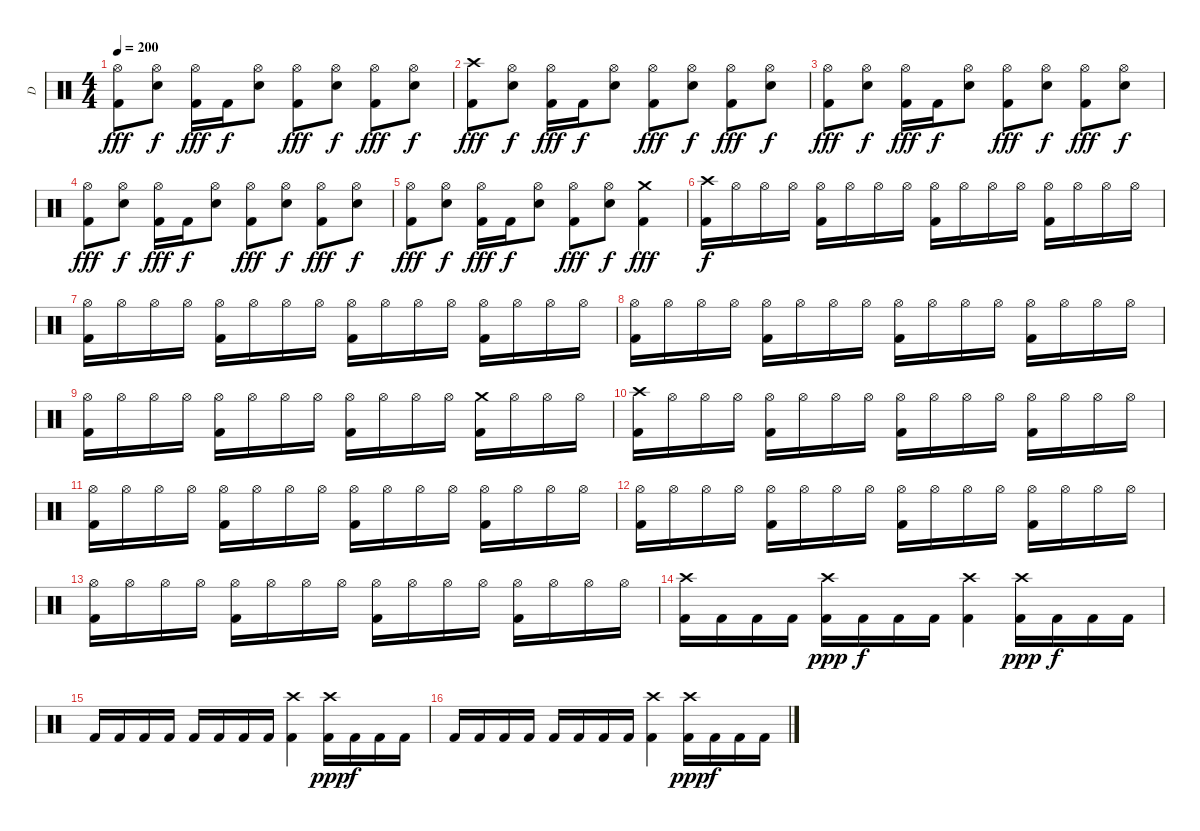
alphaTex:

\track ("D" "D") {instrument percussion}
\staff {score}
\articulation defaults
\ts (4 4)
\tempo 200
\clef neutral
\ks c
("Hi-Hat (open)" "Kick (hit) 2").8{dy fff} ("Hi-Hat (open)" "Electric Snare (hit)").8{dy f} ("Hi-Hat (open)" "Kick (hit) 2").16{dy fff} "Kick (hit) 2".16{dy f} ("Hi-Hat (open)" "Electric Snare (hit)").8 ("Hi-Hat (open)" "Kick (hit) 2").8{dy fff} ("Hi-Hat (open)" "Electric Snare (hit)").8{dy f} ("Hi-Hat (open)" "Kick (hit) 2").8{dy fff} ("Hi-Hat (open)" "Electric Snare (hit)").8{dy f} |
("Crash high (hit)" "Kick (hit) 2").8{dy fff} ("Hi-Hat (open)" "Electric Snare (hit)").8{dy f} ("Hi-Hat (open)" "Kick (hit) 2").16{dy fff} "Kick (hit) 2".16{dy f} ("Hi-Hat (open)" "Electric Snare (hit)").8 ("Hi-Hat (open)" "Kick (hit) 2").8{dy fff} ("Hi-Hat (open)" "Electric Snare (hit)").8{dy f} ("Hi-Hat (open)" "Kick (hit) 2").8{dy fff} ("Hi-Hat (open)" "Electric Snare (hit)").8{dy f} |
("Hi-Hat (open)" "Kick (hit) 2").8{dy fff} ("Hi-Hat (open)" "Electric Snare (hit)").8{dy f} ("Hi-Hat (open)" "Kick (hit) 2").16{dy fff} "Kick (hit) 2".16{dy f} ("Hi-Hat (open)" "Electric Snare (hit)").8 ("Hi-Hat (open)" "Kick (hit) 2").8{dy fff} ("Hi-Hat (open)" "Electric Snare (hit)").8{dy f} ("Hi-Hat (open)" "Kick (hit) 2").8{dy fff} ("Hi-Hat (open)" "Electric Snare (hit)").8{dy f} |
("Hi-Hat (open)" "Kick (hit) 2").8{dy fff} ("Hi-Hat (open)" "Electric Snare (hit)").8{dy f} ("Hi-Hat (open)" "Kick (hit) 2").16{dy fff} "Kick (hit) 2".16{dy f} ("Hi-Hat (open)" "Electric Snare (hit)").8 ("Hi-Hat (open)" "Kick (hit) 2").8{dy fff} ("Hi-Hat (open)" "Electric Snare (hit)").8{dy f} ("Hi-Hat (open)" "Kick (hit) 2").8{dy fff} ("Hi-Hat (open)" "Electric Snare (hit)").8{dy f} |
("Hi-Hat (open)" "Kick (hit) 2").8{dy fff} ("Hi-Hat (open)" "Electric Snare (hit)").8{dy f} ("Hi-Hat (open)" "Kick (hit) 2").16{dy fff} "Kick (hit) 2".16{dy f} ("Hi-Hat (open)" "Electric Snare (hit)").8 ("Hi-Hat (open)" "Kick (hit) 2").8{dy fff} ("Hi-Hat (open)" "Electric Snare (hit)").8{dy f} ("Crash medium (hit)" "Kick (hit) 2").4{dy fff} |
("Crash high (hit)" "Kick (hit) 2").16{dy f} "Hi-Hat (open)".16 "Hi-Hat (open)".16 "Hi-Hat (open)".16 ("Hi-Hat (open)" "Kick (hit) 2").16 "Hi-Hat (open)".16 "Hi-Hat (open)".16 "Hi-Hat (open)".16 ("Hi-Hat (open)" "Kick (hit) 2").16 "Hi-Hat (open)".16 "Hi-Hat (open)".16 "Hi-Hat (open)".16 ("Hi-Hat (open)" "Kick (hit) 2").16 "Hi-Hat (open)".16 "Hi-Hat (open)".16 "Hi-Hat (open)".16 |
("Hi-Hat (open)" "Kick (hit) 2").16 "Hi-Hat (open)".16 "Hi-Hat (open)".16 "Hi-Hat (open)".16 ("Hi-Hat (open)" "Kick (hit) 2").16 "Hi-Hat (open)".16 "Hi-Hat (open)".16 "Hi-Hat (open)".16 ("Hi-Hat (open)" "Kick (hit) 2").16 "Hi-Hat (open)".16 "Hi-Hat (open)".16 "Hi-Hat (open)".16 ("Hi-Hat (open)" "Kick (hit) 2").16 "Hi-Hat (open)".16 "Hi-Hat (open)".16 "Hi-Hat (open)".16 |
("Hi-Hat (open)" "Kick (hit) 2").16 "Hi-Hat (open)".16 "Hi-Hat (open)".16 "Hi-Hat (open)".16 ("Hi-Hat (open)" "Kick (hit) 2").16 "Hi-Hat (open)".16 "Hi-Hat (open)".16 "Hi-Hat (open)".16 ("Hi-Hat (open)" "Kick (hit) 2").16 "Hi-Hat (open)".16 "Hi-Hat (open)".16 "Hi-Hat (open)".16 ("Hi-Hat (open)" "Kick (hit) 2").16 "Hi-Hat (open)".16 "Hi-Hat (open)".16 "Hi-Hat (open)".16 |
("Hi-Hat (open)" "Kick (hit) 2").16 "Hi-Hat (open)".16 "Hi-Hat (open)".16 "Hi-Hat (open)".16 ("Hi-Hat (open)" "Kick (hit) 2").16 "Hi-Hat (open)".16 "Hi-Hat (open)".16 "Hi-Hat (open)".16 ("Hi-Hat (open)" "Kick (hit) 2").16 "Hi-Hat (open)".16 "Hi-Hat (open)".16 "Hi-Hat (open)".16 ("Crash medium (hit)" "Kick (hit) 2").16 "Hi-Hat (open)".16 "Hi-Hat (open)".16 "Hi-Hat (open)".16 |
("Crash high (hit)" "Kick (hit) 2").16 "Hi-Hat (open)".16 "Hi-Hat (open)".16 "Hi-Hat (open)".16 ("Hi-Hat (open)" "Kick (hit) 2").16 "Hi-Hat (open)".16 "Hi-Hat (open)".16 "Hi-Hat (open)".16 ("Hi-Hat (open)" "Kick (hit) 2").16 "Hi-Hat (open)".16 "Hi-Hat (open)".16 "Hi-Hat (open)".16 ("Hi-Hat (open)" "Kick (hit) 2").16 "Hi-Hat (open)".16 "Hi-Hat (open)".16 "Hi-Hat (open)".16 |
("Hi-Hat (open)" "Kick (hit) 2").16 "Hi-Hat (open)".16 "Hi-Hat (open)".16 "Hi-Hat (open)".16 ("Hi-Hat (open)" "Kick (hit) 2").16 "Hi-Hat (open)".16 "Hi-Hat (open)".16 "Hi-Hat (open)".16 ("Hi-Hat (open)" "Kick (hit) 2").16 "Hi-Hat (open)".16 "Hi-Hat (open)".16 "Hi-Hat (open)".16 ("Hi-Hat (open)" "Kick (hit) 2").16 "Hi-Hat (open)".16 "Hi-Hat (open)".16 "Hi-Hat (open)".16 |
("Hi-Hat (open)" "Kick (hit) 2").16 "Hi-Hat (open)".16 "Hi-Hat (open)".16 "Hi-Hat (open)".16 ("Hi-Hat (open)" "Kick (hit) 2").16 "Hi-Hat (open)".16 "Hi-Hat (open)".16 "Hi-Hat (open)".16 ("Hi-Hat (open)" "Kick (hit) 2").16 "Hi-Hat (open)".16 "Hi-Hat (open)".16 "Hi-Hat (open)".16 ("Hi-Hat (open)" "Kick (hit) 2").16 "Hi-Hat (open)".16 "Hi-Hat (open)".16 "Hi-Hat (open)".16 |
("Hi-Hat (open)" "Kick (hit) 2").16 "Hi-Hat (open)".16 "Hi-Hat (open)".16 "Hi-Hat (open)".16 ("Hi-Hat (open)" "Kick (hit) 2").16 "Hi-Hat (open)".16 "Hi-Hat (open)".16 "Hi-Hat (open)".16 ("Hi-Hat (open)" "Kick (hit) 2").16 "Hi-Hat (open)".16 "Hi-Hat (open)".16 "Hi-Hat (open)".16 ("Hi-Hat (open)" "Kick (hit) 2").16 "Hi-Hat (open)".16 "Hi-Hat (open)".16 "Hi-Hat (open)".16 |
("Kick (hit) 2" "Crash high (hit)").16 "Kick (hit) 2".16 "Kick (hit) 2".16 "Kick (hit) 2".16 ("Kick (hit) 2" "Crash high (hit)").16{dy ppp} "Kick (hit) 2".16{dy f} "Kick (hit) 2".16 "Kick (hit) 2".16 ("Kick (hit) 2" "Crash high (hit)").4 ("Kick (hit) 2" "Crash high (hit)").16{dy ppp} "Kick (hit) 2".16{dy f} "Kick (hit) 2".16 "Kick (hit) 2".16 |
"Kick (hit) 2".16 "Kick (hit) 2".16 "Kick (hit) 2".16 "Kick (hit) 2".16 "Kick (hit) 2".16 "Kick (hit) 2".16 "Kick (hit) 2".16 "Kick (hit) 2".16 ("Kick (hit) 2" "Crash high (hit)").4 ("Kick (hit) 2" "Crash high (hit)").16{dy ppp} "Kick (hit) 2".16{dy f} "Kick (hit) 2".16 "Kick (hit) 2".16 |
"Kick (hit) 2".16 "Kick (hit) 2".16 "Kick (hit) 2".16 "Kick (hit) 2".16 "Kick (hit) 2".16 "Kick (hit) 2".16 "Kick (hit) 2".16 "Kick (hit) 2".16 ("Kick (hit) 2" "Crash high (hit)").4 ("Kick (hit) 2" "Crash high (hit)").16{dy ppp} "Kick (hit) 2".16{dy f} "Kick (hit) 2".16 "Kick (hit) 2".16
